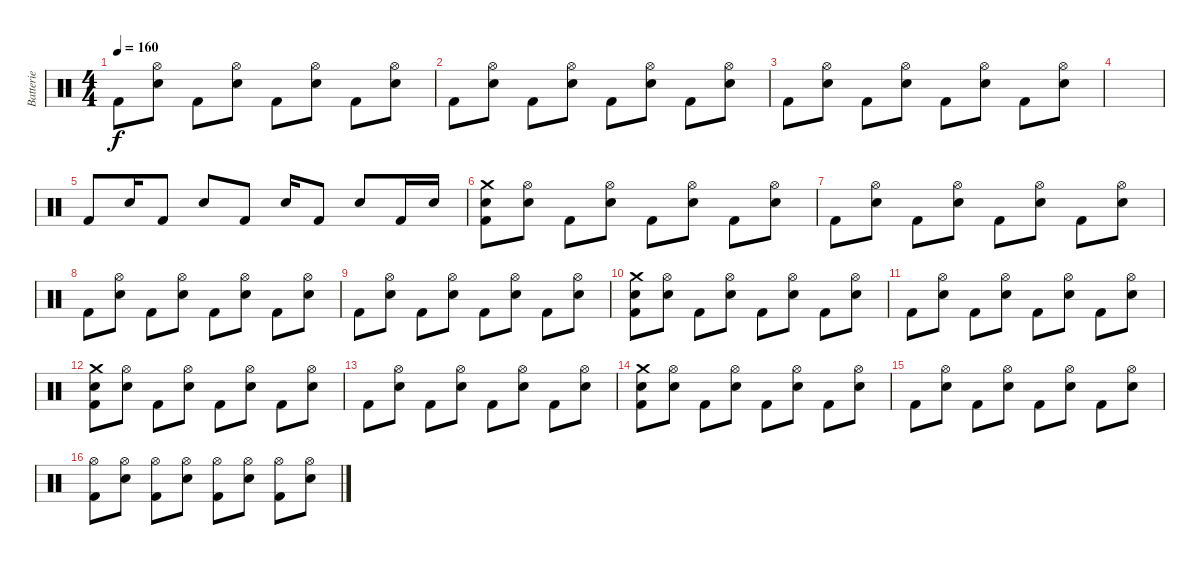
\track ("Batterie" "Batterie") {instrument percussion}
\staff {score}
\articulation defaults
\ts (4 4)
\tempo 160
\clef neutral
\ks c "Kick (hit) 2".8{dy f}
("Electric Snare (hit)" "Hi-Hat (open)").8 "Kick (hit) 2".8 ("Electric Snare (hit)" "Hi-Hat (open)").8 "Kick (hit) 2".8 ("Electric Snare (hit)" "Hi-Hat (open)").8 "Kick (hit) 2".8 ("Electric Snare (hit)" "Hi-Hat (open)").8 |
"Kick (hit) 2".8 ("Electric Snare (hit)" "Hi-Hat (open)").8 "Kick (hit) 2".8 ("Electric Snare (hit)" "Hi-Hat (open)").8 "Kick (hit) 2".8 ("Electric Snare (hit)" "Hi-Hat (open)").8 "Kick (hit) 2".8 ("Electric Snare (hit)" "Hi-Hat (open)").8 |
"Kick (hit) 2".8 ("Electric Snare (hit)" "Hi-Hat (open)").8 "Kick (hit) 2".8 ("Electric Snare (hit)" "Hi-Hat (open)").8 "Kick (hit) 2".8 ("Electric Snare (hit)" "Hi-Hat (open)").8 "Kick (hit) 2".8 ("Electric Snare (hit)" "Hi-Hat (open)").8 |
|
"Kick (hit) 2".8 "Electric Snare (hit)".16 "Kick (hit) 2".8 "Electric Snare (hit)".8 "Kick (hit) 2".8 "Electric Snare (hit)".16 "Kick (hit) 2".8 "Electric Snare (hit)".8 "Kick (hit) 2".16 "Electric Snare (hit)".16 |
("Kick (hit) 2" "Electric Snare (hit)" "Crash medium (hit)").8 ("Electric Snare (hit)" "Hi-Hat (open)").8 "Kick (hit) 2".8 ("Electric Snare (hit)" "Hi-Hat (open)").8 "Kick (hit) 2".8 ("Electric Snare (hit)" "Hi-Hat (open)").8 "Kick (hit) 2".8 ("Electric Snare (hit)" "Hi-Hat (open)").8 |
"Kick (hit) 2".8 ("Electric Snare (hit)" "Hi-Hat (open)").8 "Kick (hit) 2".8 ("Electric Snare (hit)" "Hi-Hat (open)").8 "Kick (hit) 2".8 ("Electric Snare (hit)" "Hi-Hat (open)").8 "Kick (hit) 2".8 ("Electric Snare (hit)" "Hi-Hat (open)").8 |
"Kick (hit) 2".8 ("Electric Snare (hit)" "Hi-Hat (open)").8 "Kick (hit) 2".8 ("Electric Snare (hit)" "Hi-Hat (open)").8 "Kick (hit) 2".8 ("Electric Snare (hit)" "Hi-Hat (open)").8 "Kick (hit) 2".8 ("Electric Snare (hit)" "Hi-Hat (open)").8 |
"Kick (hit) 2".8 ("Electric Snare (hit)" "Hi-Hat (open)").8 "Kick (hit) 2".8 ("Electric Snare (hit)" "Hi-Hat (open)").8 "Kick (hit) 2".8 ("Electric Snare (hit)" "Hi-Hat (open)").8 "Kick (hit) 2".8 ("Electric Snare (hit)" "Hi-Hat (open)").8 |
("Kick (hit) 2" "Electric Snare (hit)" "Crash medium (hit)").8 ("Electric Snare (hit)" "Hi-Hat (open)").8 "Kick (hit) 2".8 ("Electric Snare (hit)" "Hi-Hat (open)").8 "Kick (hit) 2".8 ("Electric Snare (hit)" "Hi-Hat (open)").8 "Kick (hit) 2".8 ("Electric Snare (hit)" "Hi-Hat (open)").8 |
"Kick (hit) 2".8 ("Electric Snare (hit)" "Hi-Hat (open)").8 "Kick (hit) 2".8 ("Electric Snare (hit)" "Hi-Hat (open)").8 "Kick (hit) 2".8 ("Electric Snare (hit)" "Hi-Hat (open)").8 "Kick (hit) 2".8 ("Electric Snare (hit)" "Hi-Hat (open)").8 |
("Kick (hit) 2" "Electric Snare (hit)" "Crash medium (hit)").8 ("Electric Snare (hit)" "Hi-Hat (open)").8 "Kick (hit) 2".8 ("Electric Snare (hit)" "Hi-Hat (open)").8 "Kick (hit) 2".8 ("Electric Snare (hit)" "Hi-Hat (open)").8 "Kick (hit) 2".8 ("Electric Snare (hit)" "Hi-Hat (open)").8 |
"Kick (hit) 2".8 ("Electric Snare (hit)" "Hi-Hat (open)").8 "Kick (hit) 2".8 ("Electric Snare (hit)" "Hi-Hat (open)").8 "Kick (hit) 2".8 ("Electric Snare (hit)" "Hi-Hat (open)").8 "Kick (hit) 2".8 ("Electric Snare (hit)" "Hi-Hat (open)").8 |
("Kick (hit) 2" "Electric Snare (hit)" "Crash medium (hit)").8 ("Electric Snare (hit)" "Hi-Hat (open)").8 "Kick (hit) 2".8 ("Electric Snare (hit)" "Hi-Hat (open)").8 "Kick (hit) 2".8 ("Electric Snare (hit)" "Hi-Hat (open)").8 "Kick (hit) 2".8 ("Electric Snare (hit)" "Hi-Hat (open)").8 |
"Kick (hit) 2".8 ("Electric Snare (hit)" "Hi-Hat (open)").8 "Kick (hit) 2".8 ("Electric Snare (hit)" "Hi-Hat (open)").8 "Kick (hit) 2".8 ("Electric Snare (hit)" "Hi-Hat (open)").8 "Kick (hit) 2".8 ("Electric Snare (hit)" "Hi-Hat (open)").8 |
("Kick (hit) 2" "Hi-Hat (open)").8 ("Electric Snare (hit)" "Hi-Hat (open)").8 ("Kick (hit) 2" "Hi-Hat (open)").8 ("Electric Snare (hit)" "Hi-Hat (open)").8 ("Kick (hit) 2" "Hi-Hat (open)").8 ("Electric Snare (hit)" "Hi-Hat (open)").8 ("Kick (hit) 2" "Hi-Hat (open)").8 ("Electric Snare (hit)" "Hi-Hat (open)").8
